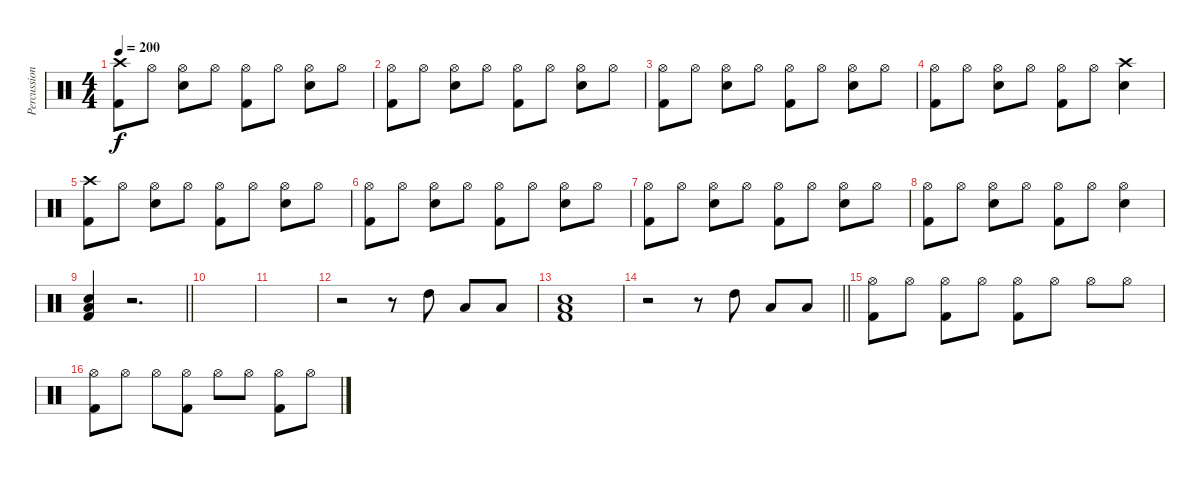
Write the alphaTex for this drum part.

\track ("Percussion" "Percussion") {instrument percussion}
\staff {score}
\articulation defaults
\ts (4 4)
\tempo 200
\clef neutral
\ks c
("Crash high (hit)" "Kick (hit) 2").8{dy f} "Hi-Hat (open)".8 ("Hi-Hat (open)" "Electric Snare (hit)").8 "Hi-Hat (open)".8 ("Hi-Hat (open)" "Kick (hit) 2").8 "Hi-Hat (open)".8 ("Hi-Hat (open)" "Electric Snare (hit)").8 "Hi-Hat (open)".8 |
("Hi-Hat (open)" "Kick (hit) 2").8 "Hi-Hat (open)".8 ("Hi-Hat (open)" "Electric Snare (hit)").8 "Hi-Hat (open)".8 ("Hi-Hat (open)" "Kick (hit) 2").8 "Hi-Hat (open)".8 ("Hi-Hat (open)" "Electric Snare (hit)").8 "Hi-Hat (open)".8 |
("Hi-Hat (open)" "Kick (hit) 2").8 "Hi-Hat (open)".8 ("Hi-Hat (open)" "Electric Snare (hit)").8 "Hi-Hat (open)".8 ("Hi-Hat (open)" "Kick (hit) 2").8 "Hi-Hat (open)".8 ("Hi-Hat (open)" "Electric Snare (hit)").8 "Hi-Hat (open)".8 |
("Hi-Hat (open)" "Kick (hit) 2").8 "Hi-Hat (open)".8 ("Hi-Hat (open)" "Electric Snare (hit)").8 "Hi-Hat (open)".8 ("Hi-Hat (open)" "Kick (hit) 2").8 "Hi-Hat (open)".8 ("Crash high (hit)" "Electric Snare (hit)").4 |
("Crash high (hit)" "Kick (hit) 2").8 "Hi-Hat (open)".8 ("Hi-Hat (open)" "Electric Snare (hit)").8 "Hi-Hat (open)".8 ("Hi-Hat (open)" "Kick (hit) 2").8 "Hi-Hat (open)".8 ("Hi-Hat (open)" "Electric Snare (hit)").8 "Hi-Hat (open)".8 |
("Hi-Hat (open)" "Kick (hit) 2").8 "Hi-Hat (open)".8 ("Hi-Hat (open)" "Electric Snare (hit)").8 "Hi-Hat (open)".8 ("Hi-Hat (open)" "Kick (hit) 2").8 "Hi-Hat (open)".8 ("Hi-Hat (open)" "Electric Snare (hit)").8 "Hi-Hat (open)".8 |
("Hi-Hat (open)" "Kick (hit) 2").8 "Hi-Hat (open)".8 ("Hi-Hat (open)" "Electric Snare (hit)").8 "Hi-Hat (open)".8 ("Hi-Hat (open)" "Kick (hit) 2").8 "Hi-Hat (open)".8 ("Hi-Hat (open)" "Electric Snare (hit)").8 "Hi-Hat (open)".8 |
("Hi-Hat (open)" "Kick (hit) 2").8 "Hi-Hat (open)".8 ("Hi-Hat (open)" "Electric Snare (hit)").8 "Hi-Hat (open)".8 ("Hi-Hat (open)" "Kick (hit) 2").8 "Hi-Hat (open)".8 ("Hi-Hat (open)" "Electric Snare (hit)").4 |
\barLineRight lightlight
("Electric Snare (hit)" "Low Floor Tom (hit)" "Kick (hit) 2").4 r.2{d} |
|
|
r.2 r.8 "High Tom (hit)".8 "Low Tom (hit)".8 "Low Floor Tom (hit)".8 |
("Electric Snare (hit)" "Low Floor Tom (hit)" "Kick (hit) 2").1 |
\barLineRight lightlight
r.2 r.8 "High Tom (hit)".8 "Low Tom (hit)".8 "Low Floor Tom (hit)".8 |
("Hi-Hat (open)" "Kick (hit) 2").8 "Hi-Hat (open)".8 ("Hi-Hat (open)" "Kick (hit) 2").8 "Hi-Hat (open)".8 ("Hi-Hat (open)" "Kick (hit) 2").8 "Hi-Hat (open)".8 "Hi-Hat (open)".8 "Hi-Hat (open)".8 |
("Hi-Hat (open)" "Kick (hit) 2").8 "Hi-Hat (open)".8 "Hi-Hat (open)".8 ("Hi-Hat (open)" "Kick (hit) 2").8 "Hi-Hat (open)".8 "Hi-Hat (open)".8 ("Hi-Hat (open)" "Kick (hit) 2").8 "Hi-Hat (open)".8
